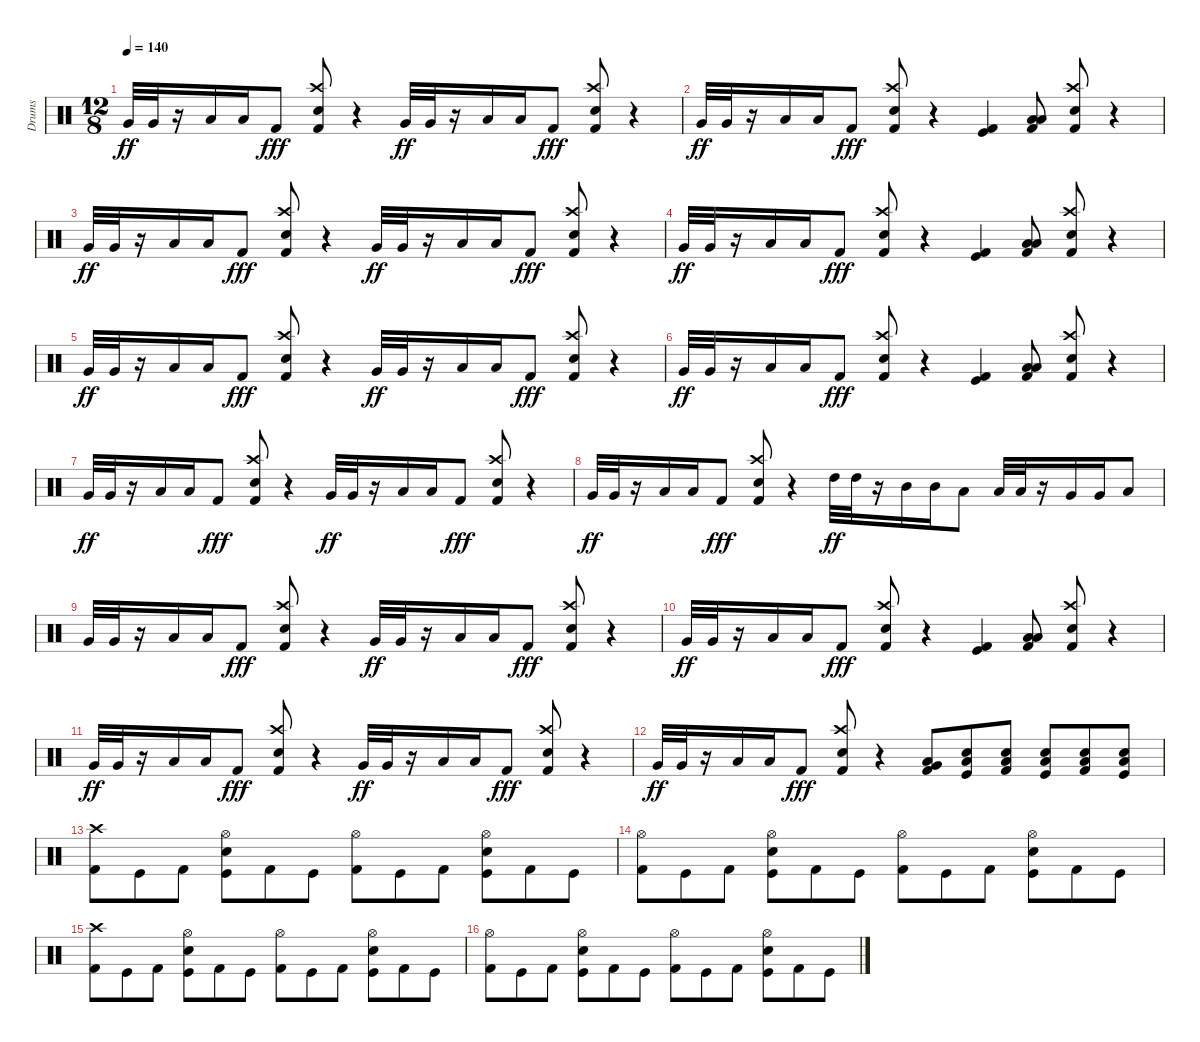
\track ("Drums" "Drums") {instrument percussion}
\staff {score}
\articulation defaults
\ts (12 8)
\tempo 140
\clef neutral
\ks c "Very Low Tom (hit)".32{dy ff} "Very Low Tom (hit)".32
r.16 "Low Floor Tom (hit)".16 "Low Floor Tom (hit)".16 "Kick (hit) 2".8{dy fff} ("Crash high (hit)" "Electric Snare (hit)" "Kick (hit) 2").8 r.4 "Very Low Tom (hit)".32{dy ff} "Very Low Tom (hit)".32 r.16 "Low Floor Tom (hit)".16 "Low Floor Tom (hit)".16 "Kick (hit) 2".8{dy fff} ("Crash high (hit)" "Electric Snare (hit)" "Kick (hit) 2").8 r.4 |
"Very Low Tom (hit)".32{dy ff} "Very Low Tom (hit)".32 r.16 "Low Floor Tom (hit)".16 "Low Floor Tom (hit)".16 "Kick (hit) 2".8{dy fff} ("Crash high (hit)" "Electric Snare (hit)" "Kick (hit) 2").8 r.4 ("Kick (hit)" "Kick (hit) 2").4 ("Low Floor Tom (hit)" "Low Tom (hit)" "Kick (hit) 2").8 ("Crash high (hit)" "Electric Snare (hit)" "Kick (hit) 2").8 r.4 |
"Very Low Tom (hit)".32{dy ff} "Very Low Tom (hit)".32 r.16 "Low Floor Tom (hit)".16 "Low Floor Tom (hit)".16 "Kick (hit) 2".8{dy fff} ("Crash high (hit)" "Electric Snare (hit)" "Kick (hit) 2").8 r.4 "Very Low Tom (hit)".32{dy ff} "Very Low Tom (hit)".32 r.16 "Low Floor Tom (hit)".16 "Low Floor Tom (hit)".16 "Kick (hit) 2".8{dy fff} ("Crash high (hit)" "Electric Snare (hit)" "Kick (hit) 2").8 r.4 |
"Very Low Tom (hit)".32{dy ff} "Very Low Tom (hit)".32 r.16 "Low Floor Tom (hit)".16 "Low Floor Tom (hit)".16 "Kick (hit) 2".8{dy fff} ("Crash high (hit)" "Electric Snare (hit)" "Kick (hit) 2").8 r.4 ("Kick (hit)" "Kick (hit) 2").4 ("Low Floor Tom (hit)" "Low Tom (hit)" "Kick (hit) 2").8 ("Crash high (hit)" "Electric Snare (hit)" "Kick (hit) 2").8 r.4 |
"Very Low Tom (hit)".32{dy ff} "Very Low Tom (hit)".32 r.16 "Low Floor Tom (hit)".16 "Low Floor Tom (hit)".16 "Kick (hit) 2".8{dy fff} ("Crash high (hit)" "Electric Snare (hit)" "Kick (hit) 2").8 r.4 "Very Low Tom (hit)".32{dy ff} "Very Low Tom (hit)".32 r.16 "Low Floor Tom (hit)".16 "Low Floor Tom (hit)".16 "Kick (hit) 2".8{dy fff} ("Crash high (hit)" "Electric Snare (hit)" "Kick (hit) 2").8 r.4 |
"Very Low Tom (hit)".32{dy ff} "Very Low Tom (hit)".32 r.16 "Low Floor Tom (hit)".16 "Low Floor Tom (hit)".16 "Kick (hit) 2".8{dy fff} ("Crash high (hit)" "Electric Snare (hit)" "Kick (hit) 2").8 r.4 ("Kick (hit)" "Kick (hit) 2").4 ("Low Floor Tom (hit)" "Low Tom (hit)" "Kick (hit) 2").8 ("Crash high (hit)" "Electric Snare (hit)" "Kick (hit) 2").8 r.4 |
"Very Low Tom (hit)".32{dy ff} "Very Low Tom (hit)".32 r.16 "Low Floor Tom (hit)".16 "Low Floor Tom (hit)".16 "Kick (hit) 2".8{dy fff} ("Crash high (hit)" "Electric Snare (hit)" "Kick (hit) 2").8 r.4 "Very Low Tom (hit)".32{dy ff} "Very Low Tom (hit)".32 r.16 "Low Floor Tom (hit)".16 "Low Floor Tom (hit)".16 "Kick (hit) 2".8{dy fff} ("Crash high (hit)" "Electric Snare (hit)" "Kick (hit) 2").8 r.4 |
"Very Low Tom (hit)".32{dy ff} "Very Low Tom (hit)".32 r.16 "Low Floor Tom (hit)".16 "Low Floor Tom (hit)".16 "Kick (hit) 2".8{dy fff} ("Crash high (hit)" "Electric Snare (hit)" "Kick (hit) 2").8 r.4 "High Tom (hit)".32{dy ff} "High Tom (hit)".32 r.16 "Mid Tom (hit)".16 "Mid Tom (hit)".16 "Low Tom (hit)".8 "Low Tom (hit)".32 "Low Tom (hit)".32 r.16 "Very Low Tom (hit)".16 "Very Low Tom (hit)".16 "Low Floor Tom (hit)".8 |
"Very Low Tom (hit)".32 "Very Low Tom (hit)".32 r.16 "Low Floor Tom (hit)".16 "Low Floor Tom (hit)".16 "Kick (hit) 2".8{dy fff} ("Crash high (hit)" "Electric Snare (hit)" "Kick (hit) 2").8 r.4 "Very Low Tom (hit)".32{dy ff} "Very Low Tom (hit)".32 r.16 "Low Floor Tom (hit)".16 "Low Floor Tom (hit)".16 "Kick (hit) 2".8{dy fff} ("Crash high (hit)" "Electric Snare (hit)" "Kick (hit) 2").8 r.4 |
"Very Low Tom (hit)".32{dy ff} "Very Low Tom (hit)".32 r.16 "Low Floor Tom (hit)".16 "Low Floor Tom (hit)".16 "Kick (hit) 2".8{dy fff} ("Crash high (hit)" "Electric Snare (hit)" "Kick (hit) 2").8 r.4 ("Kick (hit)" "Kick (hit) 2").4 ("Low Floor Tom (hit)" "Low Tom (hit)" "Kick (hit) 2").8 ("Crash high (hit)" "Electric Snare (hit)" "Kick (hit) 2").8 r.4 |
"Very Low Tom (hit)".32{dy ff} "Very Low Tom (hit)".32 r.16 "Low Floor Tom (hit)".16 "Low Floor Tom (hit)".16 "Kick (hit) 2".8{dy fff} ("Crash high (hit)" "Electric Snare (hit)" "Kick (hit) 2").8 r.4 "Very Low Tom (hit)".32{dy ff} "Very Low Tom (hit)".32 r.16 "Low Floor Tom (hit)".16 "Low Floor Tom (hit)".16 "Kick (hit) 2".8{dy fff} ("Crash high (hit)" "Electric Snare (hit)" "Kick (hit) 2").8 r.4 |
"Very Low Tom (hit)".32{dy ff} "Very Low Tom (hit)".32 r.16 "Low Floor Tom (hit)".16 "Low Floor Tom (hit)".16 "Kick (hit) 2".8{dy fff} ("Crash high (hit)" "Electric Snare (hit)" "Kick (hit) 2").8 r.4 ("Low Floor Tom (hit)" "Very Low Tom (hit)" "Kick (hit) 2").8 ("Low Tom (hit)" "Electric Snare (hit)" "Kick (hit)").8 ("Low Tom (hit)" "Electric Snare (hit)" "Kick (hit) 2").8 ("Low Tom (hit)" "Electric Snare (hit)" "Kick (hit)").8 ("Low Tom (hit)" "Electric Snare (hit)" "Kick (hit) 2").8 ("Low Tom (hit)" "Electric Snare (hit)" "Kick (hit)").8 |
("Crash high (hit)" "Kick (hit) 2").8 "Kick (hit)".8 "Kick (hit) 2".8 ("Hi-Hat (open)" "Electric Snare (hit)" "Kick (hit)").8 "Kick (hit) 2".8 "Kick (hit)".8 ("Hi-Hat (open)" "Kick (hit) 2").8 "Kick (hit)".8 "Kick (hit) 2".8 ("Hi-Hat (open)" "Electric Snare (hit)" "Kick (hit)").8 "Kick (hit) 2".8 "Kick (hit)".8 |
("Hi-Hat (open)" "Kick (hit) 2").8 "Kick (hit)".8 "Kick (hit) 2".8 ("Hi-Hat (open)" "Electric Snare (hit)" "Kick (hit)").8 "Kick (hit) 2".8 "Kick (hit)".8 ("Hi-Hat (open)" "Kick (hit) 2").8 "Kick (hit)".8 "Kick (hit) 2".8 ("Hi-Hat (open)" "Electric Snare (hit)" "Kick (hit)").8 "Kick (hit) 2".8 "Kick (hit)".8 |
("Crash high (hit)" "Kick (hit) 2").8 "Kick (hit)".8 "Kick (hit) 2".8 ("Hi-Hat (open)" "Electric Snare (hit)" "Kick (hit)").8 "Kick (hit) 2".8 "Kick (hit)".8 ("Hi-Hat (open)" "Kick (hit) 2").8 "Kick (hit)".8 "Kick (hit) 2".8 ("Hi-Hat (open)" "Electric Snare (hit)" "Kick (hit)").8 "Kick (hit) 2".8 "Kick (hit)".8 |
("Hi-Hat (open)" "Kick (hit) 2").8 "Kick (hit)".8 "Kick (hit) 2".8 ("Hi-Hat (open)" "Electric Snare (hit)" "Kick (hit)").8 "Kick (hit) 2".8 "Kick (hit)".8 ("Hi-Hat (open)" "Kick (hit) 2").8 "Kick (hit)".8 "Kick (hit) 2".8 ("Hi-Hat (open)" "Electric Snare (hit)" "Kick (hit)").8 "Kick (hit) 2".8 "Kick (hit)".8
